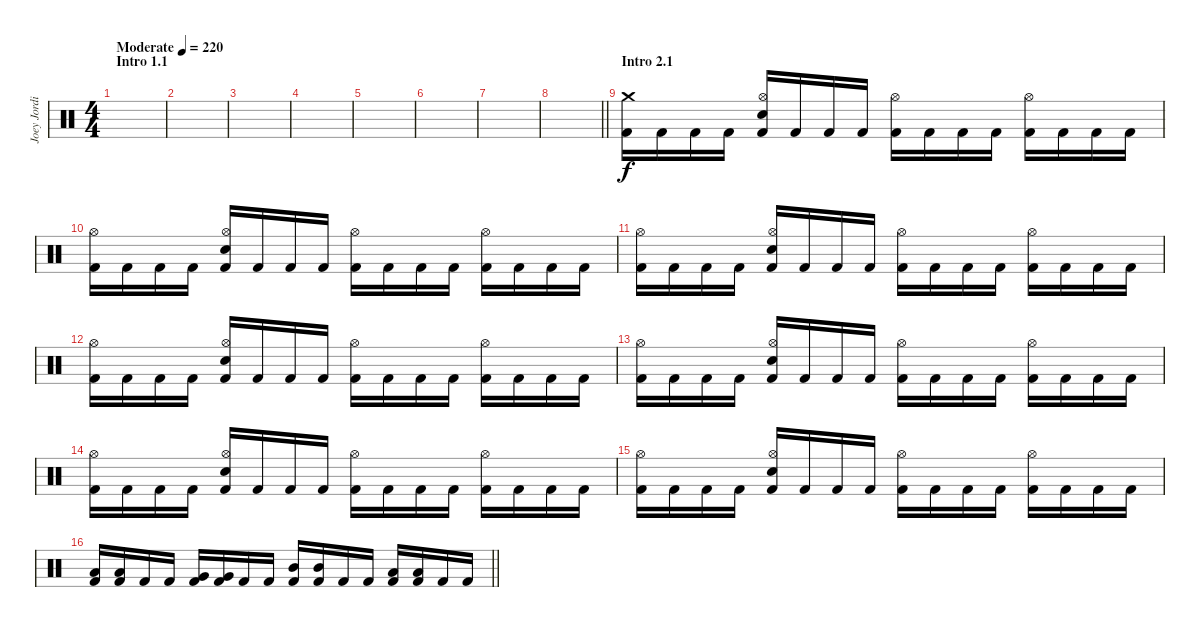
\track ("Joey Jordison" "Joey Jordi") {instrument percussion}
\staff {score}
\articulation defaults
\ts (4 4)
\section ("" "Intro 1.1")
\tempo (220 "Moderate")
\clef neutral
\ks c
|
|
|
|
|
|
|
\barLineRight lightlight
|
\section ("" "Intro 2.1")
("Crash medium (hit)" "Kick (hit) 2").16 "Kick (hit) 2".16 "Kick (hit) 2".16 "Kick (hit) 2".16 ("Hi-Hat (open)" "Electric Snare (hit)" "Kick (hit) 2").16 "Kick (hit) 2".16 "Kick (hit) 2".16 "Kick (hit) 2".16 ("Hi-Hat (open)" "Kick (hit) 2").16 "Kick (hit) 2".16 "Kick (hit) 2".16 "Kick (hit) 2".16 ("Hi-Hat (open)" "Kick (hit) 2").16 "Kick (hit) 2".16 "Kick (hit) 2".16 "Kick (hit) 2".16 |
("Hi-Hat (open)" "Kick (hit) 2").16 "Kick (hit) 2".16 "Kick (hit) 2".16 "Kick (hit) 2".16 ("Hi-Hat (open)" "Electric Snare (hit)" "Kick (hit) 2").16 "Kick (hit) 2".16 "Kick (hit) 2".16 "Kick (hit) 2".16 ("Hi-Hat (open)" "Kick (hit) 2").16 "Kick (hit) 2".16 "Kick (hit) 2".16 "Kick (hit) 2".16 ("Hi-Hat (open)" "Kick (hit) 2").16 "Kick (hit) 2".16 "Kick (hit) 2".16 "Kick (hit) 2".16 |
("Hi-Hat (open)" "Kick (hit) 2").16 "Kick (hit) 2".16 "Kick (hit) 2".16 "Kick (hit) 2".16 ("Hi-Hat (open)" "Electric Snare (hit)" "Kick (hit) 2").16 "Kick (hit) 2".16 "Kick (hit) 2".16 "Kick (hit) 2".16 ("Hi-Hat (open)" "Kick (hit) 2").16 "Kick (hit) 2".16 "Kick (hit) 2".16 "Kick (hit) 2".16 ("Hi-Hat (open)" "Kick (hit) 2").16 "Kick (hit) 2".16 "Kick (hit) 2".16 "Kick (hit) 2".16 |
("Hi-Hat (open)" "Kick (hit) 2").16 "Kick (hit) 2".16 "Kick (hit) 2".16 "Kick (hit) 2".16 ("Hi-Hat (open)" "Electric Snare (hit)" "Kick (hit) 2").16 "Kick (hit) 2".16 "Kick (hit) 2".16 "Kick (hit) 2".16 ("Hi-Hat (open)" "Kick (hit) 2").16 "Kick (hit) 2".16 "Kick (hit) 2".16 "Kick (hit) 2".16 ("Hi-Hat (open)" "Kick (hit) 2").16 "Kick (hit) 2".16 "Kick (hit) 2".16 "Kick (hit) 2".16 |
("Hi-Hat (open)" "Kick (hit) 2").16 "Kick (hit) 2".16 "Kick (hit) 2".16 "Kick (hit) 2".16 ("Hi-Hat (open)" "Electric Snare (hit)" "Kick (hit) 2").16 "Kick (hit) 2".16 "Kick (hit) 2".16 "Kick (hit) 2".16 ("Hi-Hat (open)" "Kick (hit) 2").16 "Kick (hit) 2".16 "Kick (hit) 2".16 "Kick (hit) 2".16 ("Hi-Hat (open)" "Kick (hit) 2").16 "Kick (hit) 2".16 "Kick (hit) 2".16 "Kick (hit) 2".16 |
("Hi-Hat (open)" "Kick (hit) 2").16 "Kick (hit) 2".16 "Kick (hit) 2".16 "Kick (hit) 2".16 ("Hi-Hat (open)" "Electric Snare (hit)" "Kick (hit) 2").16 "Kick (hit) 2".16 "Kick (hit) 2".16 "Kick (hit) 2".16 ("Hi-Hat (open)" "Kick (hit) 2").16 "Kick (hit) 2".16 "Kick (hit) 2".16 "Kick (hit) 2".16 ("Hi-Hat (open)" "Kick (hit) 2").16 "Kick (hit) 2".16 "Kick (hit) 2".16 "Kick (hit) 2".16 |
("Hi-Hat (open)" "Kick (hit) 2").16 "Kick (hit) 2".16 "Kick (hit) 2".16 "Kick (hit) 2".16 ("Hi-Hat (open)" "Electric Snare (hit)" "Kick (hit) 2").16 "Kick (hit) 2".16 "Kick (hit) 2".16 "Kick (hit) 2".16 ("Hi-Hat (open)" "Kick (hit) 2").16 "Kick (hit) 2".16 "Kick (hit) 2".16 "Kick (hit) 2".16 ("Hi-Hat (open)" "Kick (hit) 2").16 "Kick (hit) 2".16 "Kick (hit) 2".16 "Kick (hit) 2".16 |
\barLineRight lightlight
("Low Tom (hit)" "Kick (hit) 2").16 ("Low Tom (hit)" "Kick (hit) 2").16 "Kick (hit) 2".16 "Kick (hit) 2".16 ("Very Low Tom (hit)" "Kick (hit) 2").16 ("Very Low Tom (hit)" "Kick (hit) 2").16 "Kick (hit) 2".16 "Kick (hit) 2".16 ("Mid Tom (hit)" "Kick (hit) 2").16 ("Mid Tom (hit)" "Kick (hit) 2").16 "Kick (hit) 2".16 "Kick (hit) 2".16 ("Low Tom (hit)" "Kick (hit) 2").16 ("Low Tom (hit)" "Kick (hit) 2").16 "Kick (hit) 2".16 "Kick (hit) 2".16
